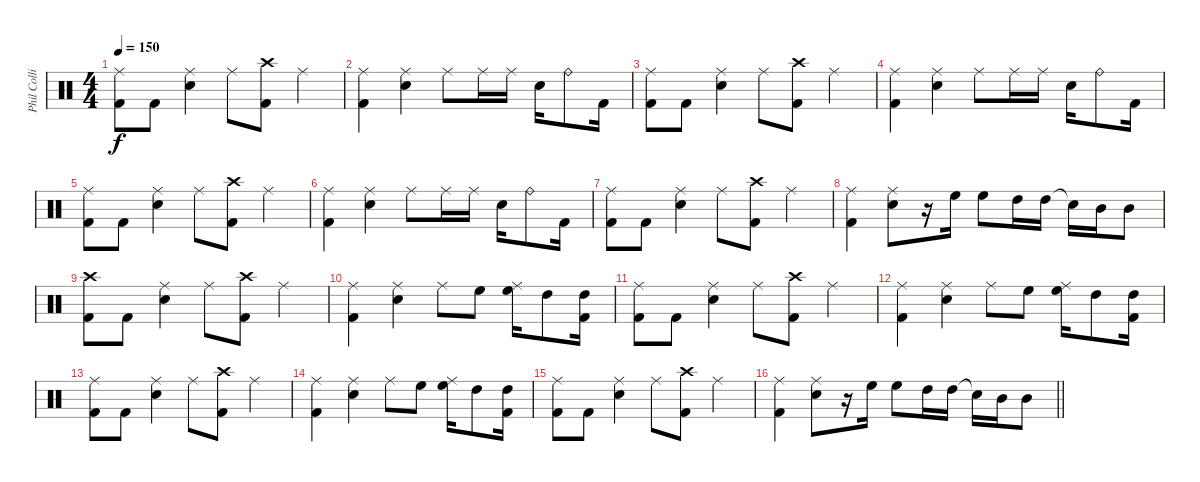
\track ("Phil Collins [Drums]" "Phil Colli") {instrument percussion}
\staff {score}
\articulation defaults
\ts (4 4)
\tempo 150
\clef neutral
\ks c
("Ride (middle)" "Kick (hit) 2").8{dy f} "Kick (hit) 2".8 ("Ride (middle)" "Electric Snare (hit)").4 "Ride (middle)".8 ("Crash high (hit)" "Kick (hit) 2").8 "Ride (middle)".4 |
("Ride (middle)" "Kick (hit) 2").4 ("Ride (middle)" "Electric Snare (hit)").4 "Ride (middle)".8 "Ride (middle)".16 "Ride (middle)".16 "Electric Snare (hit)".16 "Ride (bell)".8 "Kick (hit) 2".16 |
("Ride (middle)" "Kick (hit) 2").8 "Kick (hit) 2".8 ("Ride (middle)" "Electric Snare (hit)").4 "Ride (middle)".8 ("Crash high (hit)" "Kick (hit) 2").8 "Ride (middle)".4 |
("Ride (middle)" "Kick (hit) 2").4 ("Ride (middle)" "Electric Snare (hit)").4 "Ride (middle)".8 "Ride (middle)".16 "Ride (middle)".16 "Electric Snare (hit)".16 "Ride (bell)".8 "Kick (hit) 2".16 |
("Ride (middle)" "Kick (hit) 2").8 "Kick (hit) 2".8 ("Ride (middle)" "Electric Snare (hit)").4 "Ride (middle)".8 ("Crash high (hit)" "Kick (hit) 2").8 "Ride (middle)".4 |
("Ride (middle)" "Kick (hit) 2").4 ("Ride (middle)" "Electric Snare (hit)").4 "Ride (middle)".8 "Ride (middle)".16 "Ride (middle)".16 "Electric Snare (hit)".16 "Ride (bell)".8 "Kick (hit) 2".16 |
("Ride (middle)" "Kick (hit) 2").8 "Kick (hit) 2".8 ("Ride (middle)" "Electric Snare (hit)").4 "Ride (middle)".8 ("Crash high (hit)" "Kick (hit) 2").8 "Ride (middle)".4 |
("Ride (middle)" "Kick (hit) 2").4 ("Ride (middle)" "Electric Snare (hit)").8 r.16 "High Floor Tom (hit)".16 "High Floor Tom (hit)".8 "High Tom (hit)".16 "High Tom (hit)".16 "Snare (hit)"{t}.16 "Mid Tom (hit)".16 "Mid Tom (hit)".8 |
("Crash high (hit)" "Kick (hit) 2").8 "Kick (hit) 2".8 ("Ride (middle)" "Electric Snare (hit)").4 "Ride (middle)".8 ("Crash high (hit)" "Kick (hit) 2").8 "Ride (middle)".4 |
("Ride (middle)" "Kick (hit) 2").4 ("Ride (middle)" "Electric Snare (hit)").4 "Ride (middle)".8 "High Floor Tom (hit)".8 ("Ride (middle)" "High Floor Tom (hit)").16 "High Tom (hit)".8 ("High Tom (hit)" "Kick (hit) 2").16 |
("Ride (middle)" "Kick (hit) 2").8 "Kick (hit) 2".8 ("Ride (middle)" "Electric Snare (hit)").4 "Ride (middle)".8 ("Crash high (hit)" "Kick (hit) 2").8 "Ride (middle)".4 |
("Ride (middle)" "Kick (hit) 2").4 ("Ride (middle)" "Electric Snare (hit)").4 "Ride (middle)".8 "High Floor Tom (hit)".8 ("Ride (middle)" "High Floor Tom (hit)").16 "High Tom (hit)".8 ("High Tom (hit)" "Kick (hit) 2").16 |
("Ride (middle)" "Kick (hit) 2").8 "Kick (hit) 2".8 ("Ride (middle)" "Electric Snare (hit)").4 "Ride (middle)".8 ("Crash high (hit)" "Kick (hit) 2").8 "Ride (middle)".4 |
("Ride (middle)" "Kick (hit) 2").4 ("Ride (middle)" "Electric Snare (hit)").4 "Ride (middle)".8 "High Floor Tom (hit)".8 ("Ride (middle)" "High Floor Tom (hit)").16 "High Tom (hit)".8 ("High Tom (hit)" "Kick (hit) 2").16 |
("Ride (middle)" "Kick (hit) 2").8 "Kick (hit) 2".8 ("Ride (middle)" "Electric Snare (hit)").4 "Ride (middle)".8 ("Crash high (hit)" "Kick (hit) 2").8 "Ride (middle)".4 |
\barLineRight lightlight
("Ride (middle)" "Kick (hit) 2").4 ("Ride (middle)" "Electric Snare (hit)").8 r.16 "High Floor Tom (hit)".16 "High Floor Tom (hit)".8 "High Tom (hit)".16 "High Tom (hit)".16 "Snare (hit)"{t}.16 "Mid Tom (hit)".16 "Mid Tom (hit)".8
